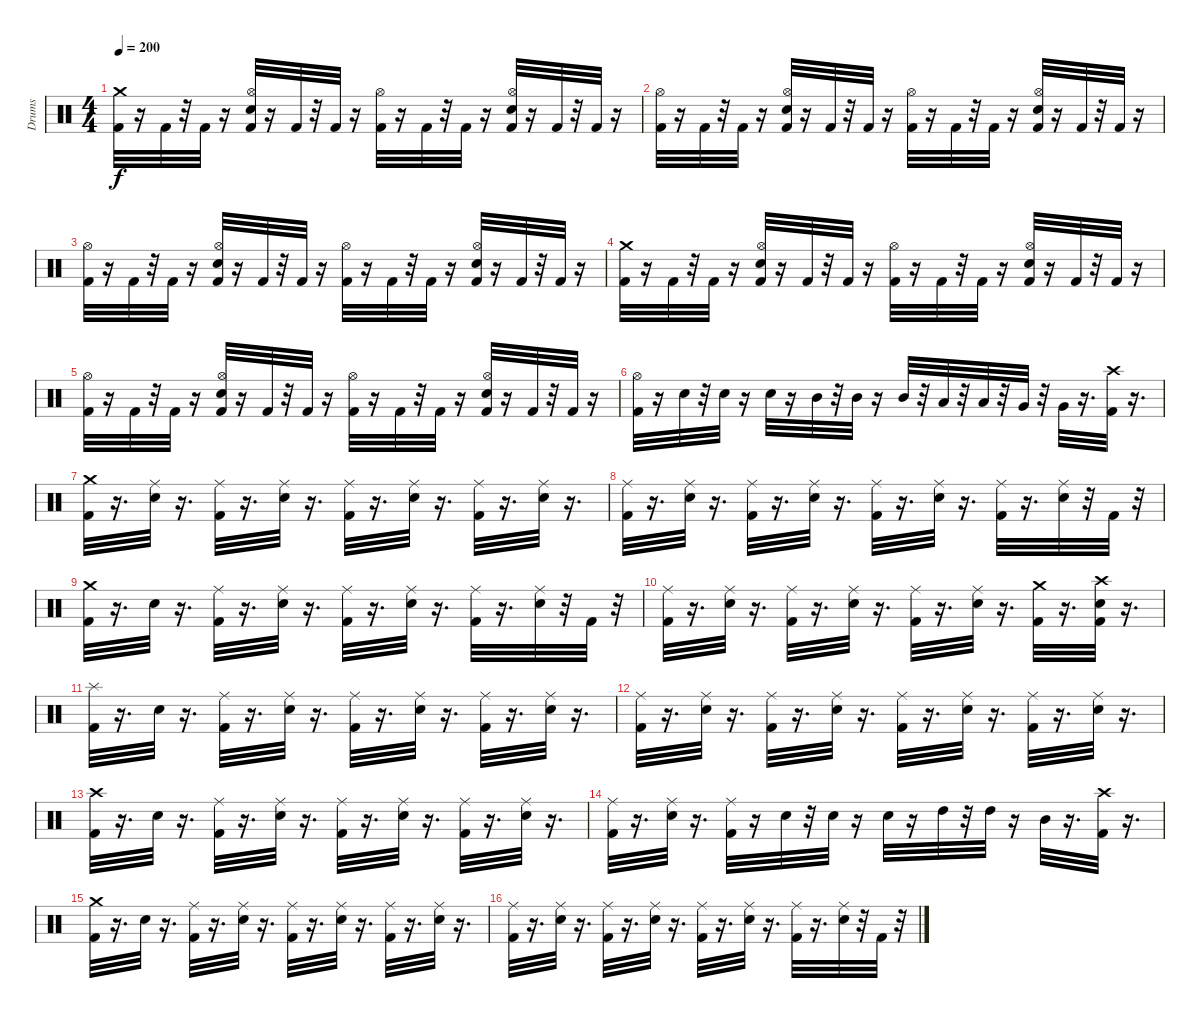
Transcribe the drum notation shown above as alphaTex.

\track ("Drums" "Drums") {instrument percussion}
\staff {score}
\articulation defaults
\ts (4 4)
\tempo 200
\clef neutral
\ks c
("Kick (hit) 2" "Crash medium (hit)").32{dy f} r.16 "Kick (hit) 2".32 r.32 "Kick (hit) 2".32 r.16 ("Hi-Hat (open)" "Electric Snare (hit)" "Kick (hit) 2").32 r.16 "Kick (hit) 2".32 r.32 "Kick (hit) 2".32 r.16 ("Hi-Hat (open)" "Kick (hit) 2").32 r.16 "Kick (hit) 2".32 r.32 "Kick (hit) 2".32 r.16 ("Hi-Hat (open)" "Electric Snare (hit)" "Kick (hit) 2").32 r.16 "Kick (hit) 2".32 r.32 "Kick (hit) 2".32 r.16 |
("Hi-Hat (open)" "Kick (hit) 2").32 r.16 "Kick (hit) 2".32 r.32 "Kick (hit) 2".32 r.16 ("Hi-Hat (open)" "Electric Snare (hit)" "Kick (hit) 2").32 r.16 "Kick (hit) 2".32 r.32 "Kick (hit) 2".32 r.16 ("Hi-Hat (open)" "Kick (hit) 2").32 r.16 "Kick (hit) 2".32 r.32 "Kick (hit) 2".32 r.16 ("Hi-Hat (open)" "Electric Snare (hit)" "Kick (hit) 2").32 r.16 "Kick (hit) 2".32 r.32 "Kick (hit) 2".32 r.16 |
("Hi-Hat (open)" "Kick (hit) 2").32 r.16 "Kick (hit) 2".32 r.32 "Kick (hit) 2".32 r.16 ("Hi-Hat (open)" "Electric Snare (hit)" "Kick (hit) 2").32 r.16 "Kick (hit) 2".32 r.32 "Kick (hit) 2".32 r.16 ("Hi-Hat (open)" "Kick (hit) 2").32 r.16 "Kick (hit) 2".32 r.32 "Kick (hit) 2".32 r.16 ("Hi-Hat (open)" "Electric Snare (hit)" "Kick (hit) 2").32 r.16 "Kick (hit) 2".32 r.32 "Kick (hit) 2".32 r.16 |
("Crash medium (hit)" "Kick (hit) 2").32 r.16 "Kick (hit) 2".32 r.32 "Kick (hit) 2".32 r.16 ("Hi-Hat (open)" "Electric Snare (hit)" "Kick (hit) 2").32 r.16 "Kick (hit) 2".32 r.32 "Kick (hit) 2".32 r.16 ("Hi-Hat (open)" "Kick (hit) 2").32 r.16 "Kick (hit) 2".32 r.32 "Kick (hit) 2".32 r.16 ("Hi-Hat (open)" "Electric Snare (hit)" "Kick (hit) 2").32 r.16 "Kick (hit) 2".32 r.32 "Kick (hit) 2".32 r.16 |
("Hi-Hat (open)" "Kick (hit) 2").32 r.16 "Kick (hit) 2".32 r.32 "Kick (hit) 2".32 r.16 ("Hi-Hat (open)" "Electric Snare (hit)" "Kick (hit) 2").32 r.16 "Kick (hit) 2".32 r.32 "Kick (hit) 2".32 r.16 ("Hi-Hat (open)" "Kick (hit) 2").32 r.16 "Kick (hit) 2".32 r.32 "Kick (hit) 2".32 r.16 ("Hi-Hat (open)" "Electric Snare (hit)" "Kick (hit) 2").32 r.16 "Kick (hit) 2".32 r.32 "Kick (hit) 2".32 r.16 |
("Hi-Hat (open)" "Kick (hit) 2").32 r.16 "Electric Snare (hit)".32 r.32 "Electric Snare (hit)".32 r.16 "Electric Snare (hit)".32 r.16 "Mid Tom (hit)".32 r.32 "Mid Tom (hit)".32 r.16 "Mid Tom (hit)".32 r.32 "Low Tom (hit)".32 r.32 "Low Tom (hit)".32 r.32 "Very Low Tom (hit)".32 r.32 "Very Low Tom (hit)".32 r.16{d} ("Kick (hit) 2" "Crash high (hit)").32 r.16{d} |
("Kick (hit) 2" "Crash medium (hit)").32 r.16{d} ("Ride (middle)" "Electric Snare (hit)").32 r.16{d} ("Ride (middle)" "Kick (hit) 2").32 r.16{d} ("Ride (middle)" "Electric Snare (hit)").32 r.16{d} ("Ride (middle)" "Kick (hit) 2").32 r.16{d} ("Ride (middle)" "Electric Snare (hit)").32 r.16{d} ("Ride (middle)" "Kick (hit) 2").32 r.16{d} ("Ride (middle)" "Electric Snare (hit)").32 r.16{d} |
("Ride (middle)" "Kick (hit) 2").32 r.16{d} ("Ride (middle)" "Electric Snare (hit)").32 r.16{d} ("Ride (middle)" "Kick (hit) 2").32 r.16{d} ("Electric Snare (hit)" "Ride (middle)").32 r.16{d} ("Ride (middle)" "Kick (hit) 2").32 r.16{d} ("Ride (middle)" "Electric Snare (hit)").32 r.16{d} ("Ride (middle)" "Kick (hit) 2").32 r.16{d} ("Ride (middle)" "Electric Snare (hit)").32 r.32 "Kick (hit) 2".32 r.32 |
("Crash medium (hit)" "Kick (hit) 2").32 r.16{d} "Electric Snare (hit)".32 r.16{d} ("Ride (middle)" "Kick (hit) 2").32 r.16{d} ("Ride (middle)" "Electric Snare (hit)").32 r.16{d} ("Ride (middle)" "Kick (hit) 2").32 r.16{d} ("Ride (middle)" "Electric Snare (hit)").32 r.16{d} ("Ride (middle)" "Kick (hit) 2").32 r.16{d} ("Ride (middle)" "Electric Snare (hit)").32 r.32 "Kick (hit) 2".32 r.32 |
("Ride (middle)" "Kick (hit) 2").32 r.16{d} ("Ride (middle)" "Electric Snare (hit)").32 r.16{d} ("Ride (middle)" "Kick (hit) 2").32 r.16{d} ("Ride (middle)" "Electric Snare (hit)").32 r.16{d} ("Ride (middle)" "Kick (hit) 2").32 r.16{d} ("Electric Snare (hit)" "Ride (middle)").32 r.16{d} ("Kick (hit) 2" "Crash medium (hit)").32 r.16{d} ("Kick (hit) 2" "Electric Snare (hit)" "Crash high (hit)").32 r.16{d} |
("Splash (hit)" "Kick (hit) 2").32 r.16{d} "Electric Snare (hit)".32 r.16{d} ("Kick (hit) 2" "Ride (middle)").32 r.16{d} ("Electric Snare (hit)" "Ride (middle)").32 r.16{d} ("Kick (hit) 2" "Ride (middle)").32 r.16{d} ("Electric Snare (hit)" "Ride (middle)").32 r.16{d} ("Kick (hit) 2" "Ride (middle)").32 r.16{d} ("Electric Snare (hit)" "Ride (middle)").32 r.16{d} |
("Kick (hit) 2" "Ride (middle)").32 r.16{d} ("Electric Snare (hit)" "Ride (middle)").32 r.16{d} ("Kick (hit) 2" "Ride (middle)").32 r.16{d} ("Electric Snare (hit)" "Ride (middle)").32 r.16{d} ("Kick (hit) 2" "Ride (middle)").32 r.16{d} ("Electric Snare (hit)" "Ride (middle)").32 r.16{d} ("Kick (hit) 2" "Ride (middle)").32 r.16{d} ("Electric Snare (hit)" "Ride (middle)").32 r.16{d} |
("Kick (hit) 2" "Crash high (hit)").32 r.16{d} "Electric Snare (hit)".32 r.16{d} ("Kick (hit) 2" "Ride (middle)").32 r.16{d} ("Electric Snare (hit)" "Ride (middle)").32 r.16{d} ("Kick (hit) 2" "Ride (middle)").32 r.16{d} ("Electric Snare (hit)" "Ride (middle)").32 r.16{d} ("Kick (hit) 2" "Ride (middle)").32 r.16{d} ("Electric Snare (hit)" "Ride (middle)").32 r.16{d} |
("Kick (hit) 2" "Ride (middle)").32 r.16{d} ("Electric Snare (hit)" "Ride (middle)").32 r.16{d} ("Kick (hit) 2" "Ride (middle)").32 r.16 "Electric Snare (hit)".32 r.32 "Electric Snare (hit)".32 r.16 "Electric Snare (hit)".32 r.16 "High Tom (hit)".32 r.32 "High Tom (hit)".32 r.16 "Mid Tom (hit)".32 r.16{d} ("Kick (hit) 2" "Crash high (hit)").32 r.16{d} |
("Kick (hit) 2" "Crash medium (hit)").32 r.16{d} "Electric Snare (hit)".32 r.16{d} ("Kick (hit) 2" "Ride (middle)").32 r.16{d} ("Electric Snare (hit)" "Ride (middle)").32 r.16{d} ("Kick (hit) 2" "Ride (middle)").32 r.16{d} ("Electric Snare (hit)" "Ride (middle)").32 r.16{d} ("Kick (hit) 2" "Ride (middle)").32 r.16{d} ("Electric Snare (hit)" "Ride (middle)").32 r.16{d} |
("Kick (hit) 2" "Ride (middle)").32 r.16{d} ("Electric Snare (hit)" "Ride (middle)").32 r.16{d} ("Kick (hit) 2" "Ride (middle)").32 r.16{d} ("Electric Snare (hit)" "Ride (middle)").32 r.16{d} ("Kick (hit) 2" "Ride (middle)").32 r.16{d} ("Electric Snare (hit)" "Ride (middle)").32 r.16{d} ("Kick (hit) 2" "Ride (middle)").32 r.16{d} ("Electric Snare (hit)" "Ride (middle)").32 r.32 "Kick (hit) 2".32 r.32
